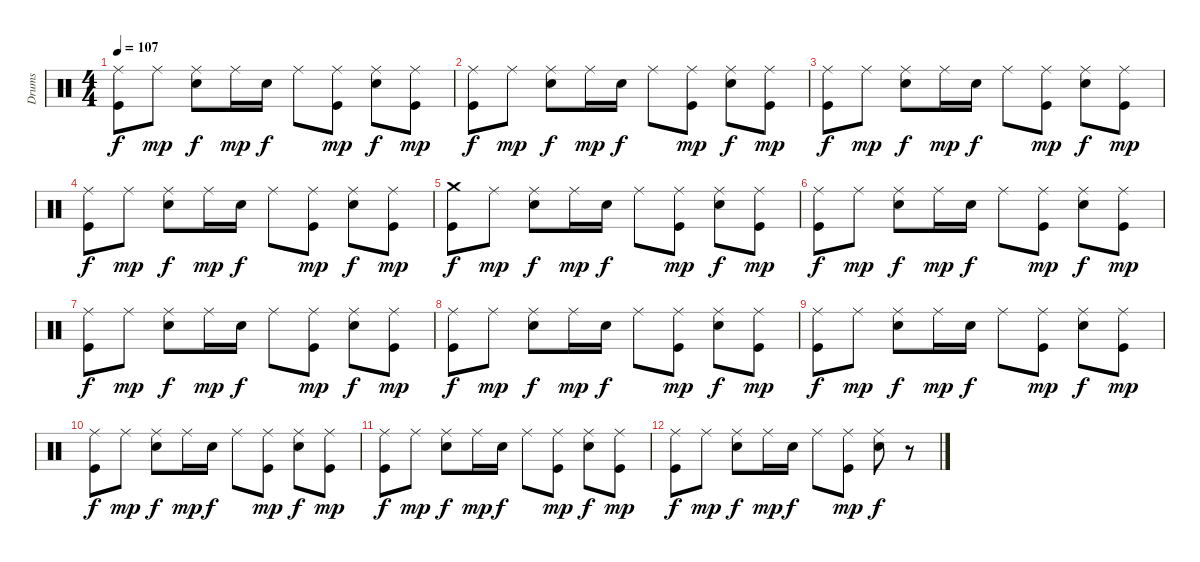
\track ("Drums" "Drums") {instrument percussion}
\staff {score}
\articulation defaults
\ts (4 4)
\tempo 107
\clef neutral
\ks c
("Ride (middle)" "Kick (hit)").8{dy f} "Ride (middle)".8{dy mp} ("Ride (middle)" "Electric Snare (hit)").8{dy f} "Ride (middle)".16{dy mp} "Electric Snare (hit)".16{dy f} "Ride (middle)".8 ("Ride (middle)" "Kick (hit)").8{dy mp} ("Ride (middle)" "Electric Snare (hit)").8{dy f} ("Ride (middle)" "Kick (hit)").8{dy mp} |
("Ride (middle)" "Kick (hit)").8{dy f} "Ride (middle)".8{dy mp} ("Ride (middle)" "Electric Snare (hit)").8{dy f} "Ride (middle)".16{dy mp} "Electric Snare (hit)".16{dy f} "Ride (middle)".8 ("Ride (middle)" "Kick (hit)").8{dy mp} ("Ride (middle)" "Electric Snare (hit)").8{dy f} ("Ride (middle)" "Kick (hit)").8{dy mp} |
("Ride (middle)" "Kick (hit)").8{dy f} "Ride (middle)".8{dy mp} ("Ride (middle)" "Electric Snare (hit)").8{dy f} "Ride (middle)".16{dy mp} "Electric Snare (hit)".16{dy f} "Ride (middle)".8 ("Ride (middle)" "Kick (hit)").8{dy mp} ("Ride (middle)" "Electric Snare (hit)").8{dy f} ("Ride (middle)" "Kick (hit)").8{dy mp} |
("Ride (middle)" "Kick (hit)").8{dy f} "Ride (middle)".8{dy mp} ("Ride (middle)" "Electric Snare (hit)").8{dy f} "Ride (middle)".16{dy mp} "Electric Snare (hit)".16{dy f} "Ride (middle)".8 ("Ride (middle)" "Kick (hit)").8{dy mp} ("Ride (middle)" "Electric Snare (hit)").8{dy f} ("Ride (middle)" "Kick (hit)").8{dy mp} |
("Crash medium (hit)" "Kick (hit)").8{dy f} "Ride (middle)".8{dy mp} ("Ride (middle)" "Electric Snare (hit)").8{dy f} "Ride (middle)".16{dy mp} "Electric Snare (hit)".16{dy f} "Ride (middle)".8 ("Ride (middle)" "Kick (hit)").8{dy mp} ("Ride (middle)" "Electric Snare (hit)").8{dy f} ("Ride (middle)" "Kick (hit)").8{dy mp} |
("Ride (middle)" "Kick (hit)").8{dy f} "Ride (middle)".8{dy mp} ("Ride (middle)" "Electric Snare (hit)").8{dy f} "Ride (middle)".16{dy mp} "Electric Snare (hit)".16{dy f} "Ride (middle)".8 ("Ride (middle)" "Kick (hit)").8{dy mp} ("Ride (middle)" "Electric Snare (hit)").8{dy f} ("Ride (middle)" "Kick (hit)").8{dy mp} |
("Ride (middle)" "Kick (hit)").8{dy f} "Ride (middle)".8{dy mp} ("Ride (middle)" "Electric Snare (hit)").8{dy f} "Ride (middle)".16{dy mp} "Electric Snare (hit)".16{dy f} "Ride (middle)".8 ("Ride (middle)" "Kick (hit)").8{dy mp} ("Ride (middle)" "Electric Snare (hit)").8{dy f} ("Ride (middle)" "Kick (hit)").8{dy mp} |
("Ride (middle)" "Kick (hit)").8{dy f} "Ride (middle)".8{dy mp} ("Ride (middle)" "Electric Snare (hit)").8{dy f} "Ride (middle)".16{dy mp} "Electric Snare (hit)".16{dy f} "Ride (middle)".8 ("Ride (middle)" "Kick (hit)").8{dy mp} ("Ride (middle)" "Electric Snare (hit)").8{dy f} ("Ride (middle)" "Kick (hit)").8{dy mp} |
("Ride (middle)" "Kick (hit)").8{dy f} "Ride (middle)".8{dy mp} ("Ride (middle)" "Electric Snare (hit)").8{dy f} "Ride (middle)".16{dy mp} "Electric Snare (hit)".16{dy f} "Ride (middle)".8 ("Ride (middle)" "Kick (hit)").8{dy mp} ("Ride (middle)" "Electric Snare (hit)").8{dy f} ("Ride (middle)" "Kick (hit)").8{dy mp} |
("Ride (middle)" "Kick (hit)").8{dy f} "Ride (middle)".8{dy mp} ("Ride (middle)" "Electric Snare (hit)").8{dy f} "Ride (middle)".16{dy mp} "Electric Snare (hit)".16{dy f} "Ride (middle)".8 ("Ride (middle)" "Kick (hit)").8{dy mp} ("Ride (middle)" "Electric Snare (hit)").8{dy f} ("Ride (middle)" "Kick (hit)").8{dy mp} |
("Ride (middle)" "Kick (hit)").8{dy f} "Ride (middle)".8{dy mp} ("Ride (middle)" "Electric Snare (hit)").8{dy f} "Ride (middle)".16{dy mp} "Electric Snare (hit)".16{dy f} "Ride (middle)".8 ("Ride (middle)" "Kick (hit)").8{dy mp} ("Ride (middle)" "Electric Snare (hit)").8{dy f} ("Ride (middle)" "Kick (hit)").8{dy mp} |
("Ride (middle)" "Kick (hit)").8{dy f} "Ride (middle)".8{dy mp} ("Ride (middle)" "Electric Snare (hit)").8{dy f} "Ride (middle)".16{dy mp} "Electric Snare (hit)".16{dy f} "Ride (middle)".8 ("Ride (middle)" "Kick (hit)").8{dy mp} ("Ride (middle)" "Electric Snare (hit)").8{dy f} r.8
